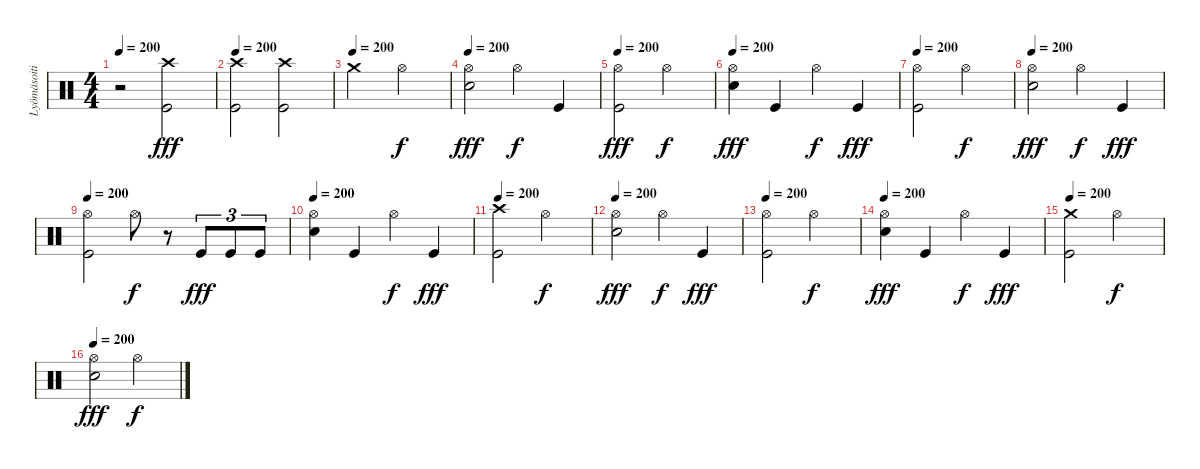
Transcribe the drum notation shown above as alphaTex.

\track ("Lyömäsoitin" "Lyömäsoiti") {instrument percussion}
\staff {score}
\articulation defaults
\ts (4 4)
\tempo 200
\clef neutral
\ks c
r.2{dy f} ("Crash high (hit)" "Kick (hit)").2{dy fff} |
\tempo 200
("Crash high (hit)" "Kick (hit)").2 ("Crash high (hit)" "Kick (hit)").2 |
\tempo (200)
"Crash medium (hit)".2 "Hi-Hat (open)".2{dy f} |
\tempo 200
("Hi-Hat (open)" "Electric Snare (hit)").2{dy fff} "Hi-Hat (open)".4{dy f} "Kick (hit)".4 |
\tempo 200
("Hi-Hat (open)" "Kick (hit)").2{dy fff} "Hi-Hat (open)".2{dy f} |
\tempo 200
("Hi-Hat (open)" "Electric Snare (hit)").4{dy fff} "Kick (hit)".4 "Hi-Hat (open)".4{dy f} "Kick (hit)".4{dy fff} |
\tempo 200
("Hi-Hat (open)" "Kick (hit)").2 "Hi-Hat (open)".2{dy f} |
\tempo 200
("Hi-Hat (open)" "Electric Snare (hit)").2{dy fff} "Hi-Hat (open)".4{dy f} "Kick (hit)".4{dy fff} |
\tempo 200
("Hi-Hat (open)" "Kick (hit)").2 "Hi-Hat (open)".8{dy f} r.8 "Kick (hit)".8{tu (3 2) dy fff} "Kick (hit)".8{tu (3 2)} "Kick (hit)".8{tu (3 2)} |
\tempo 200
("Hi-Hat (open)" "Electric Snare (hit)").4 "Kick (hit)".4 "Hi-Hat (open)".4{dy f} "Kick (hit)".4{dy fff} |
\tempo 200
("Crash high (hit)" "Kick (hit)").2 "Hi-Hat (open)".2{dy f} |
\tempo 200
("Hi-Hat (open)" "Electric Snare (hit)").2{dy fff} "Hi-Hat (open)".4{dy f} "Kick (hit)".4{dy fff} |
\tempo 200
("Hi-Hat (open)" "Kick (hit)").2 "Hi-Hat (open)".2{dy f} |
\tempo 200
("Hi-Hat (open)" "Electric Snare (hit)").4{dy fff} "Kick (hit)".4 "Hi-Hat (open)".4{dy f} "Kick (hit)".4{dy fff} |
\tempo 200
("Crash medium (hit)" "Kick (hit)").2 "Hi-Hat (open)".2{dy f} |
\tempo 200
("Hi-Hat (open)" "Electric Snare (hit)").2{dy fff} "Hi-Hat (open)".2{dy f}
